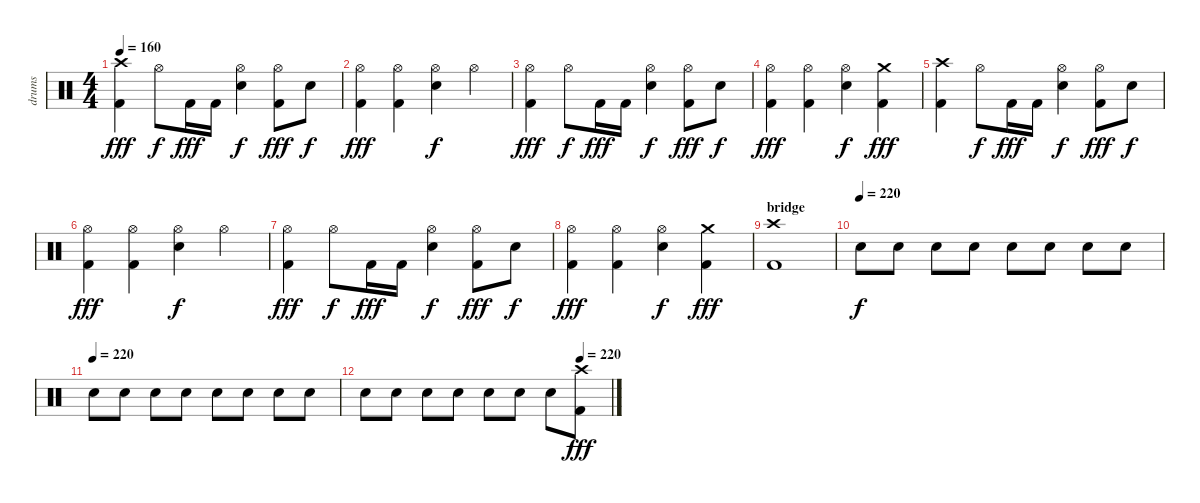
\track ("drums" "drums") {instrument percussion}
\staff {score}
\articulation defaults
\ts (4 4)
\tempo 160
\clef neutral
\ks c
("Crash high (hit)" "Kick (hit) 2").4{dy fff} "Hi-Hat (open)".8{dy f} "Kick (hit) 2".16{dy fff} "Kick (hit) 2".16 ("Hi-Hat (open)" "Snare (hit) 2").4{dy f} ("Hi-Hat (open)" "Kick (hit) 2").8{dy fff} "Snare (hit) 2".8{dy f} |
("Hi-Hat (open)" "Kick (hit) 2").4{dy fff} ("Hi-Hat (open)" "Kick (hit) 2").4 ("Hi-Hat (open)" "Snare (hit) 2").4{dy f} "Hi-Hat (open)".4 |
("Hi-Hat (open)" "Kick (hit) 2").4{dy fff} "Hi-Hat (open)".8{dy f} "Kick (hit) 2".16{dy fff} "Kick (hit) 2".16 ("Hi-Hat (open)" "Snare (hit) 2").4{dy f} ("Hi-Hat (open)" "Kick (hit) 2").8{dy fff} "Snare (hit) 2".8{dy f} |
("Hi-Hat (open)" "Kick (hit) 2").4{dy fff} ("Hi-Hat (open)" "Kick (hit) 2").4 ("Hi-Hat (open)" "Snare (hit) 2").4{dy f} ("Crash medium (hit)" "Kick (hit) 2").4{dy fff} |
("Crash high (hit)" "Kick (hit) 2").4 "Hi-Hat (open)".8{dy f} "Kick (hit) 2".16{dy fff} "Kick (hit) 2".16 ("Hi-Hat (open)" "Snare (hit) 2").4{dy f} ("Hi-Hat (open)" "Kick (hit) 2").8{dy fff} "Snare (hit) 2".8{dy f} |
("Hi-Hat (open)" "Kick (hit) 2").4{dy fff} ("Hi-Hat (open)" "Kick (hit) 2").4 ("Hi-Hat (open)" "Snare (hit) 2").4{dy f} "Hi-Hat (open)".4 |
("Hi-Hat (open)" "Kick (hit) 2").4{dy fff} "Hi-Hat (open)".8{dy f} "Kick (hit) 2".16{dy fff} "Kick (hit) 2".16 ("Hi-Hat (open)" "Snare (hit) 2").4{dy f} ("Hi-Hat (open)" "Kick (hit) 2").8{dy fff} "Snare (hit) 2".8{dy f} |
("Hi-Hat (open)" "Kick (hit) 2").4{dy fff} ("Hi-Hat (open)" "Kick (hit) 2").4 ("Hi-Hat (open)" "Snare (hit) 2").4{dy f} ("Crash medium (hit)" "Kick (hit) 2").4{dy fff} |
\section ("" "bridge")
("Crash high (hit)" "Kick (hit) 2").1 |
\tempo (220)
"Snare (hit) 2".8{dy f} "Snare (hit) 2".8 "Snare (hit) 2".8 "Snare (hit) 2".8 "Snare (hit) 2".8 "Snare (hit) 2".8 "Snare (hit) 2".8 "Snare (hit) 2".8 |
\tempo (220)
"Snare (hit) 2".8 "Snare (hit) 2".8 "Snare (hit) 2".8 "Snare (hit) 2".8 "Snare (hit) 2".8 "Snare (hit) 2".8 "Snare (hit) 2".8 "Snare (hit) 2".8 |
\tempo (220 0.875)
"Snare (hit) 2".8 "Snare (hit) 2".8 "Snare (hit) 2".8 "Snare (hit) 2".8 "Snare (hit) 2".8 "Snare (hit) 2".8 "Snare (hit) 2".8 ("Crash high (hit)" "Kick (hit) 2").8{dy fff}
